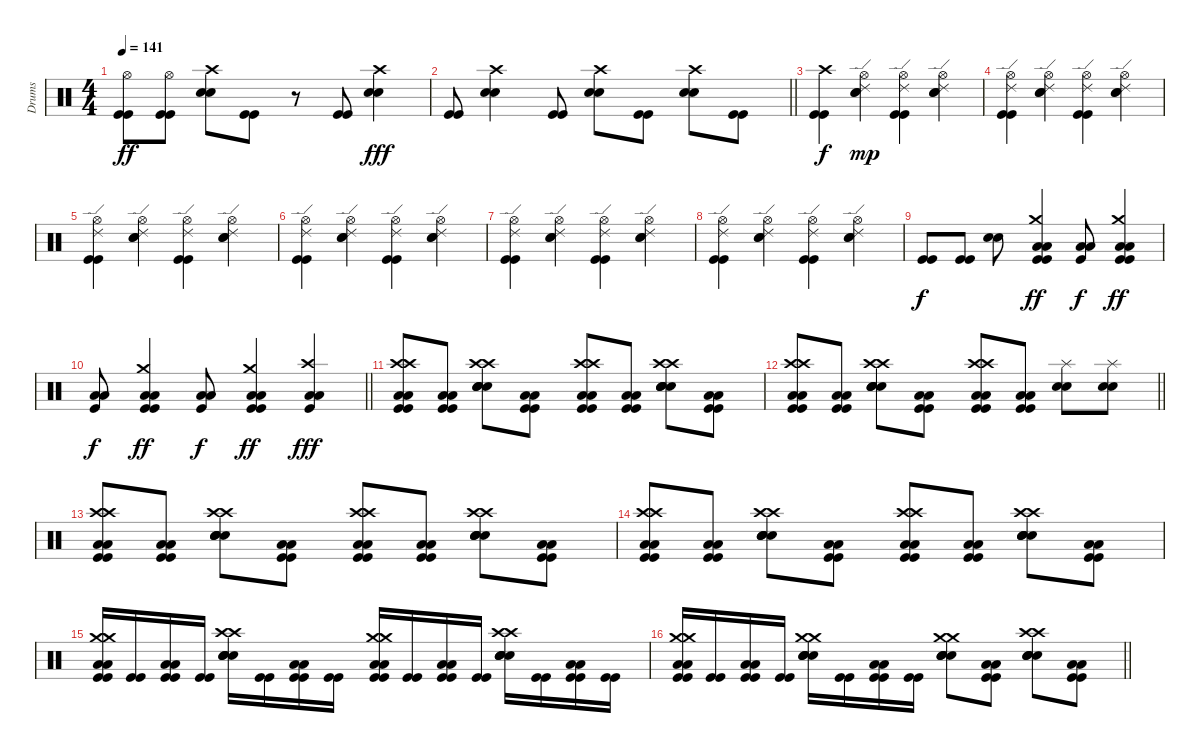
\track ("Drums" "Drums") {instrument percussion}
\staff {score}
\articulation defaults
\ts (4 4)
\tempo 141
\clef neutral
\ks c
("Hi-Hat (open)" "Kick (hit)" "Kick (hit)").8{dy ff} ("Hi-Hat (open)" "Kick (hit)" "Kick (hit)").8 ("Crash high (hit)" "Snare (hit) 2" "Snare (hit) 2").8{volume 11} ("Kick (hit)" "Kick (hit)").8 r.8 ("Kick (hit)" "Kick (hit)").8 ("Crash high (hit)" "Snare (hit) 2" "Snare (hit) 2").4{dy fff} |
\barLineRight lightlight
("Kick (hit)" "Kick (hit)").8 ("Crash high (hit)" "Snare (hit) 2" "Snare (hit) 2").4 ("Kick (hit)" "Kick (hit)").8 ("Crash high (hit)" "Snare (hit) 2" "Snare (hit) 2").8 ("Kick (hit)" "Kick (hit)").8 ("Crash high (hit)" "Snare (hit) 2" "Snare (hit) 2").8 ("Kick (hit)" "Kick (hit)").8 |
("Crash high (hit)" "Kick (hit)" "Kick (hit)").4{dy f volume 13} ("Ride (edge) 2" "Hi-Hat (open)" "Snare (hit) 2" "Snare (hit) 2").4{dy mp} ("Ride (edge) 2" "Hi-Hat (open)" "Kick (hit)" "Kick (hit)").4 ("Ride (edge) 2" "Hi-Hat (open)" "Snare (hit) 2" "Snare (hit) 2").4 |
("Ride (edge) 2" "Hi-Hat (open)" "Kick (hit)" "Kick (hit)").4 ("Ride (edge) 2" "Hi-Hat (open)" "Snare (hit) 2" "Snare (hit) 2").4 ("Ride (edge) 2" "Hi-Hat (open)" "Kick (hit)" "Kick (hit)").4 ("Ride (edge) 2" "Hi-Hat (open)" "Snare (hit) 2" "Snare (hit) 2").4 |
("Ride (edge) 2" "Hi-Hat (open)" "Kick (hit)" "Kick (hit)").4 ("Ride (edge) 2" "Hi-Hat (open)" "Snare (hit) 2" "Snare (hit) 2").4 ("Ride (edge) 2" "Hi-Hat (open)" "Kick (hit)" "Kick (hit)").4 ("Ride (edge) 2" "Hi-Hat (open)" "Snare (hit) 2" "Snare (hit) 2").4 |
("Ride (edge) 2" "Hi-Hat (open)" "Kick (hit)" "Kick (hit)").4 ("Ride (edge) 2" "Hi-Hat (open)" "Snare (hit) 2" "Snare (hit) 2").4 ("Ride (edge) 2" "Hi-Hat (open)" "Kick (hit)" "Kick (hit)").4 ("Ride (edge) 2" "Hi-Hat (open)" "Snare (hit) 2" "Snare (hit) 2").4 |
("Ride (edge) 2" "Hi-Hat (open)" "Kick (hit)" "Kick (hit)").4 ("Ride (edge) 2" "Hi-Hat (open)" "Snare (hit) 2" "Snare (hit) 2").4 ("Ride (edge) 2" "Hi-Hat (open)" "Kick (hit)" "Kick (hit)").4 ("Ride (edge) 2" "Hi-Hat (open)" "Snare (hit) 2" "Snare (hit) 2").4 |
("Ride (edge) 2" "Hi-Hat (open)" "Kick (hit)" "Kick (hit)").4 ("Ride (edge) 2" "Hi-Hat (open)" "Snare (hit) 2" "Snare (hit) 2").4 ("Ride (edge) 2" "Hi-Hat (open)" "Kick (hit)" "Kick (hit)").4 ("Ride (edge) 2" "Hi-Hat (open)" "Snare (hit) 2" "Snare (hit) 2").4 |
("Kick (hit)" "Kick (hit)").8{dy f} ("Kick (hit)" "Kick (hit)").8 ("Snare (hit) 2" "Snare (hit) 2").8 ("Crash medium (hit)" "Low Floor Tom (hit)" "Low Floor Tom (hit)" "Kick (hit)" "Kick (hit)").4{dy ff} ("Low Floor Tom (hit)" "Low Floor Tom (hit)" "Kick (hit)").8{dy f} ("Crash medium (hit)" "Low Floor Tom (hit)" "Low Floor Tom (hit)" "Kick (hit)" "Kick (hit)").4{dy ff} |
\barLineRight lightlight
("Low Floor Tom (hit)" "Low Floor Tom (hit)" "Kick (hit)").8{dy f} ("Crash medium (hit)" "Low Floor Tom (hit)" "Low Floor Tom (hit)" "Kick (hit)" "Kick (hit)").4{dy ff} ("Low Floor Tom (hit)" "Low Floor Tom (hit)" "Kick (hit)").8{dy f} ("Crash medium (hit)" "Low Floor Tom (hit)" "Low Floor Tom (hit)" "Kick (hit)" "Kick (hit)").4{dy ff} ("Crash high (hit)" "Low Floor Tom (hit)" "Low Floor Tom (hit)" "Kick (hit)").4{dy fff} |
("Crash high (hit)" "Crash high (hit)" "Low Floor Tom (hit)" "Low Floor Tom (hit)" "Kick (hit)" "Kick (hit)").8 ("Low Floor Tom (hit)" "Low Floor Tom (hit)" "Kick (hit)" "Kick (hit)").8 ("Crash high (hit)" "Crash high (hit)" "Snare (hit) 2" "Snare (hit) 2" "Snare (hit) 2" "Snare (hit) 2").8 ("Low Floor Tom (hit)" "Low Floor Tom (hit)" "Kick (hit)" "Kick (hit)").8 ("Crash high (hit)" "Crash high (hit)" "Low Floor Tom (hit)" "Low Floor Tom (hit)" "Kick (hit)" "Kick (hit)").8 ("Low Floor Tom (hit)" "Low Floor Tom (hit)" "Kick (hit)" "Kick (hit)").8 ("Crash high (hit)" "Crash high (hit)" "Snare (hit) 2" "Snare (hit) 2" "Snare (hit) 2" "Snare (hit) 2").8 ("Low Floor Tom (hit)" "Low Floor Tom (hit)" "Kick (hit)" "Kick (hit)").8 |
\barLineRight lightlight
("Crash high (hit)" "Crash high (hit)" "Low Floor Tom (hit)" "Low Floor Tom (hit)" "Kick (hit)" "Kick (hit)").8 ("Low Floor Tom (hit)" "Low Floor Tom (hit)" "Kick (hit)" "Kick (hit)").8 ("Crash high (hit)" "Crash high (hit)" "Snare (hit) 2" "Snare (hit) 2" "Snare (hit) 2" "Snare (hit) 2").8 ("Low Floor Tom (hit)" "Low Floor Tom (hit)" "Kick (hit)" "Kick (hit)").8 ("Crash high (hit)" "Crash high (hit)" "Low Floor Tom (hit)" "Low Floor Tom (hit)" "Kick (hit)" "Kick (hit)").8 ("Low Floor Tom (hit)" "Low Floor Tom (hit)" "Kick (hit)" "Kick (hit)").8 ("Splash (hit)" "Snare (hit) 2" "Snare (hit) 2").8 ("Splash (hit)" "Snare (hit) 2" "Snare (hit) 2").8 |
("Crash high (hit)" "Crash high (hit)" "Low Floor Tom (hit)" "Low Floor Tom (hit)" "Kick (hit)" "Kick (hit)").8 ("Low Floor Tom (hit)" "Low Floor Tom (hit)" "Kick (hit)" "Kick (hit)").8 ("Crash high (hit)" "Crash high (hit)" "Snare (hit) 2" "Snare (hit) 2" "Snare (hit) 2" "Snare (hit) 2").8 ("Low Floor Tom (hit)" "Low Floor Tom (hit)" "Kick (hit)" "Kick (hit)").8 ("Crash high (hit)" "Crash high (hit)" "Low Floor Tom (hit)" "Low Floor Tom (hit)" "Kick (hit)" "Kick (hit)").8 ("Low Floor Tom (hit)" "Low Floor Tom (hit)" "Kick (hit)" "Kick (hit)").8 ("Crash high (hit)" "Crash high (hit)" "Snare (hit) 2" "Snare (hit) 2" "Snare (hit) 2" "Snare (hit) 2").8 ("Low Floor Tom (hit)" "Low Floor Tom (hit)" "Kick (hit)" "Kick (hit)").8 |
("Crash high (hit)" "Crash high (hit)" "Low Floor Tom (hit)" "Low Floor Tom (hit)" "Kick (hit)" "Kick (hit)").8 ("Low Floor Tom (hit)" "Low Floor Tom (hit)" "Kick (hit)" "Kick (hit)").8 ("Crash high (hit)" "Crash high (hit)" "Snare (hit) 2" "Snare (hit) 2" "Snare (hit) 2" "Snare (hit) 2").8 ("Low Floor Tom (hit)" "Low Floor Tom (hit)" "Kick (hit)" "Kick (hit)").8 ("Crash high (hit)" "Crash high (hit)" "Low Floor Tom (hit)" "Low Floor Tom (hit)" "Kick (hit)" "Kick (hit)").8 ("Low Floor Tom (hit)" "Low Floor Tom (hit)" "Kick (hit)" "Kick (hit)").8 ("Crash high (hit)" "Crash high (hit)" "Snare (hit) 2" "Snare (hit) 2" "Snare (hit) 2" "Snare (hit) 2").8 ("Low Floor Tom (hit)" "Low Floor Tom (hit)" "Kick (hit)" "Kick (hit)").8 |
("Crash medium (hit)" "Crash medium (hit)" "Low Floor Tom (hit)" "Low Floor Tom (hit)" "Kick (hit)" "Kick (hit)").16 ("Kick (hit)" "Kick (hit)").16 ("Low Floor Tom (hit)" "Low Floor Tom (hit)" "Kick (hit)" "Kick (hit)").16 ("Kick (hit)" "Kick (hit)").16 ("Crash high (hit)" "Crash high (hit)" "Snare (hit) 2" "Snare (hit) 2" "Snare (hit) 2" "Snare (hit) 2").16 ("Kick (hit)" "Kick (hit)").16 ("Low Floor Tom (hit)" "Low Floor Tom (hit)" "Kick (hit)" "Kick (hit)").16 ("Kick (hit)" "Kick (hit)").16 ("Crash medium (hit)" "Crash medium (hit)" "Low Floor Tom (hit)" "Low Floor Tom (hit)" "Kick (hit)" "Kick (hit)").16 ("Kick (hit)" "Kick (hit)").16 ("Low Floor Tom (hit)" "Low Floor Tom (hit)" "Kick (hit)" "Kick (hit)").16 ("Kick (hit)" "Kick (hit)").16 ("Crash high (hit)" "Crash high (hit)" "Snare (hit) 2" "Snare (hit) 2" "Snare (hit) 2" "Snare (hit) 2").16 ("Kick (hit)" "Kick (hit)").16 ("Low Floor Tom (hit)" "Low Floor Tom (hit)" "Kick (hit)" "Kick (hit)").16 ("Kick (hit)" "Kick (hit)").16 |
\barLineRight lightlight
("Crash medium (hit)" "Crash medium (hit)" "Low Floor Tom (hit)" "Low Floor Tom (hit)" "Kick (hit)" "Kick (hit)").16 ("Kick (hit)" "Kick (hit)").16 ("Low Floor Tom (hit)" "Low Floor Tom (hit)" "Kick (hit)" "Kick (hit)").16 ("Kick (hit)" "Kick (hit)").16 ("Crash medium (hit)" "Crash medium (hit)" "Snare (hit) 2" "Snare (hit) 2" "Snare (hit) 2" "Snare (hit) 2").16 ("Kick (hit)" "Kick (hit)").16 ("Low Floor Tom (hit)" "Low Floor Tom (hit)" "Kick (hit)" "Kick (hit)").16 ("Kick (hit)" "Kick (hit)").16 ("Crash medium (hit)" "Crash medium (hit)" "Snare (hit) 2" "Snare (hit) 2" "Snare (hit) 2" "Snare (hit) 2").8 ("Low Floor Tom (hit)" "Low Floor Tom (hit)" "Kick (hit)" "Kick (hit)").8 ("Crash high (hit)" "Crash high (hit)" "Snare (hit) 2" "Snare (hit) 2" "Snare (hit) 2" "Snare (hit) 2").8 ("Low Floor Tom (hit)" "Low Floor Tom (hit)" "Kick (hit)" "Kick (hit)").8
